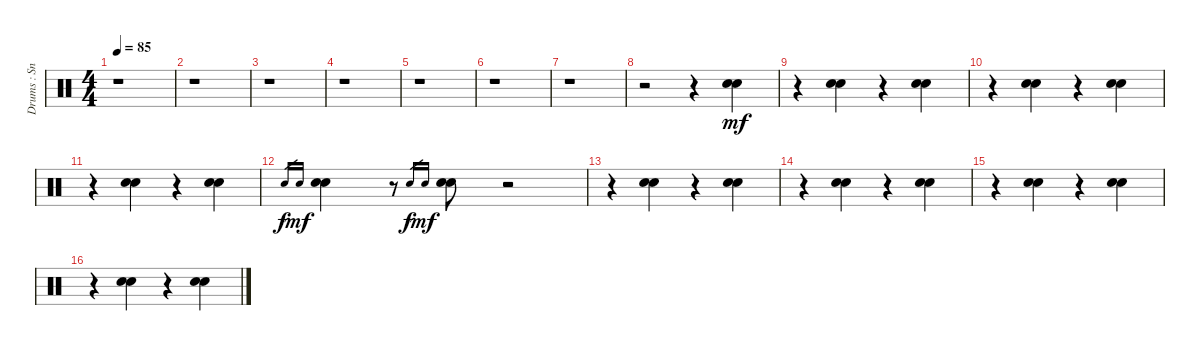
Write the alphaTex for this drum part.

\track ("Drums : Snare" "Drums : Sn") {instrument percussion}
\staff {score}
\articulation defaults
\ts (4 4)
\tempo 85
\clef neutral
\ks c
r.1{dy mf} |
r.1 |
r.1 |
r.1 |
r.1 |
r.1 |
r.1 |
r.2 r.4 ("Electric Snare (hit)" "Snare (hit) 2").4 |
r.4 ("Electric Snare (hit)" "Snare (hit) 2").4 r.4 ("Electric Snare (hit)" "Snare (hit) 2").4 |
r.4 ("Electric Snare (hit)" "Snare (hit) 2").4 r.4 ("Electric Snare (hit)" "Snare (hit) 2").4 |
r.4 ("Electric Snare (hit)" "Snare (hit) 2").4 r.4 ("Electric Snare (hit)" "Snare (hit) 2").4 |
"Electric Snare (hit)".16{gr dy f} "Snare (hit) 2".16{gr dy mf} ("Electric Snare (hit)" "Snare (hit) 2").4 r.8 "Electric Snare (hit)".16{gr dy f} "Snare (hit) 2".16{gr dy mf} ("Electric Snare (hit)" "Snare (hit) 2").8 r.2 |
r.4 ("Electric Snare (hit)" "Snare (hit) 2").4 r.4 ("Electric Snare (hit)" "Snare (hit) 2").4 |
r.4 ("Electric Snare (hit)" "Snare (hit) 2").4 r.4 ("Electric Snare (hit)" "Snare (hit) 2").4 |
r.4 ("Electric Snare (hit)" "Snare (hit) 2").4 r.4 ("Electric Snare (hit)" "Snare (hit) 2").4 |
r.4 ("Electric Snare (hit)" "Snare (hit) 2").4 r.4 ("Electric Snare (hit)" "Snare (hit) 2").4
